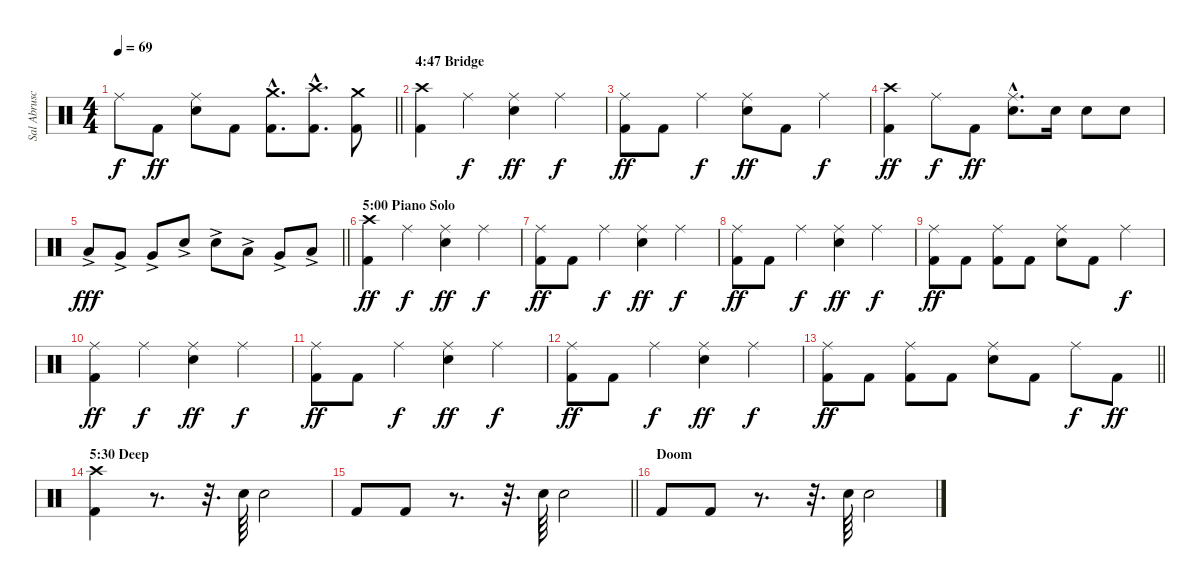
\track ("Sal Abruscato (Drums)" "Sal Abrusc") {instrument percussion}
\staff {score}
\articulation defaults
\ts (4 4)
\tempo 69
\clef neutral
\barLineRight lightlight
\ks c "Ride (middle)".8{dy f} "Kick (hit) 2".8{dy ff}
("Electric Snare (hit)" "Ride (middle)").8 "Kick (hit) 2".8 ("Kick (hit) 2"{hac} "Crash medium (hit)"{hac}).8{d} ("Kick (hit) 2"{hac} "Crash high (hit)"{hac}).8{d} ("Kick (hit) 2" "Crash medium (hit)").8 |
\section ("" "4:47 Bridge")
("Kick (hit) 2" "Crash high (hit)").4 "Ride (middle)".4{dy f} ("Electric Snare (hit)" "Ride (middle)").4{dy ff} "Ride (middle)".4{dy f} |
("Kick (hit) 2" "Ride (middle)").8{dy ff} "Kick (hit) 2".8 "Ride (middle)".4{dy f} ("Electric Snare (hit)" "Ride (middle)").8{dy ff} "Kick (hit) 2".8 "Ride (middle)".4{dy f} |
("Kick (hit) 2" "Crash high (hit)").4{dy ff} "Ride (middle)".8{dy f} "Kick (hit) 2".8{dy ff} ("Electric Snare (hit)"{hac} "Ride (middle)"{hac}).8{d} "Electric Snare (hit)".16 "Electric Snare (hit)".8 "Electric Snare (hit)".8 |
\barLineRight lightlight "Low Tom (hit)"{ac}.8{dy fff} "Very Low Tom (hit)"{ac}.8 "Very Low Tom (hit)"{ac}.8 "Electric Snare (hit)"{ac}.8 "Electric Snare (hit)"{ac}.8 "Low Tom (hit)"{ac}.8 "Very Low Tom (hit)"{ac}.8 "Low Floor Tom (hit)"{ac}.8
|
\section ("" "5:00 Piano Solo")
("Kick (hit) 2" "Crash high (hit)").4{dy ff} "Ride (middle)".4{dy f} ("Electric Snare (hit)" "Ride (middle)").4{dy ff} "Ride (middle)".4{dy f} |
("Kick (hit) 2" "Ride (middle)").8{dy ff} "Kick (hit) 2".8 "Ride (middle)".4{dy f} ("Electric Snare (hit)" "Ride (middle)").4{dy ff} "Ride (middle)".4{dy f} |
("Kick (hit) 2" "Ride (middle)").8{dy ff} "Kick (hit) 2".8 "Ride (middle)".4{dy f} ("Electric Snare (hit)" "Ride (middle)").4{dy ff} "Ride (middle)".4{dy f} |
("Kick (hit) 2" "Ride (middle)").8{dy ff} "Kick (hit) 2".8 ("Kick (hit) 2" "Ride (middle)").8 "Kick (hit) 2".8 ("Electric Snare (hit)" "Ride (middle)").8 "Kick (hit) 2".8 "Ride (middle)".4{dy f} |
("Kick (hit) 2" "Ride (middle)").4{dy ff} "Ride (middle)".4{dy f} ("Electric Snare (hit)" "Ride (middle)").4{dy ff} "Ride (middle)".4{dy f} |
("Kick (hit) 2" "Ride (middle)").8{dy ff} "Kick (hit) 2".8 "Ride (middle)".4{dy f} ("Electric Snare (hit)" "Ride (middle)").4{dy ff} "Ride (middle)".4{dy f} |
("Kick (hit) 2" "Ride (middle)").8{dy ff} "Kick (hit) 2".8 "Ride (middle)".4{dy f} ("Electric Snare (hit)" "Ride (middle)").4{dy ff} "Ride (middle)".4{dy f} |
\barLineRight lightlight
("Kick (hit) 2" "Ride (middle)").8{dy ff} "Kick (hit) 2".8 ("Kick (hit) 2" "Ride (middle)").8 "Kick (hit) 2".8 ("Electric Snare (hit)" "Ride (middle)").8 "Kick (hit) 2".8 "Ride (middle)".8{dy f} "Kick (hit) 2".8{dy ff} |
\section ("" "5:30 Deep")
("Kick (hit) 2" "Crash high (hit)").4 r.8{d} r.32{d} "Electric Snare (hit)".64 "Electric Snare (hit)".2 |
\barLineRight lightlight "Kick (hit) 2".8 "Kick (hit) 2".8
r.8{d} r.32{d} "Electric Snare (hit)".64 "Electric Snare (hit)".2 |
\section ("" "Doom")
"Kick (hit) 2".8 "Kick (hit) 2".8 r.8{d} r.32{d} "Electric Snare (hit)".64 "Electric Snare (hit)".2
